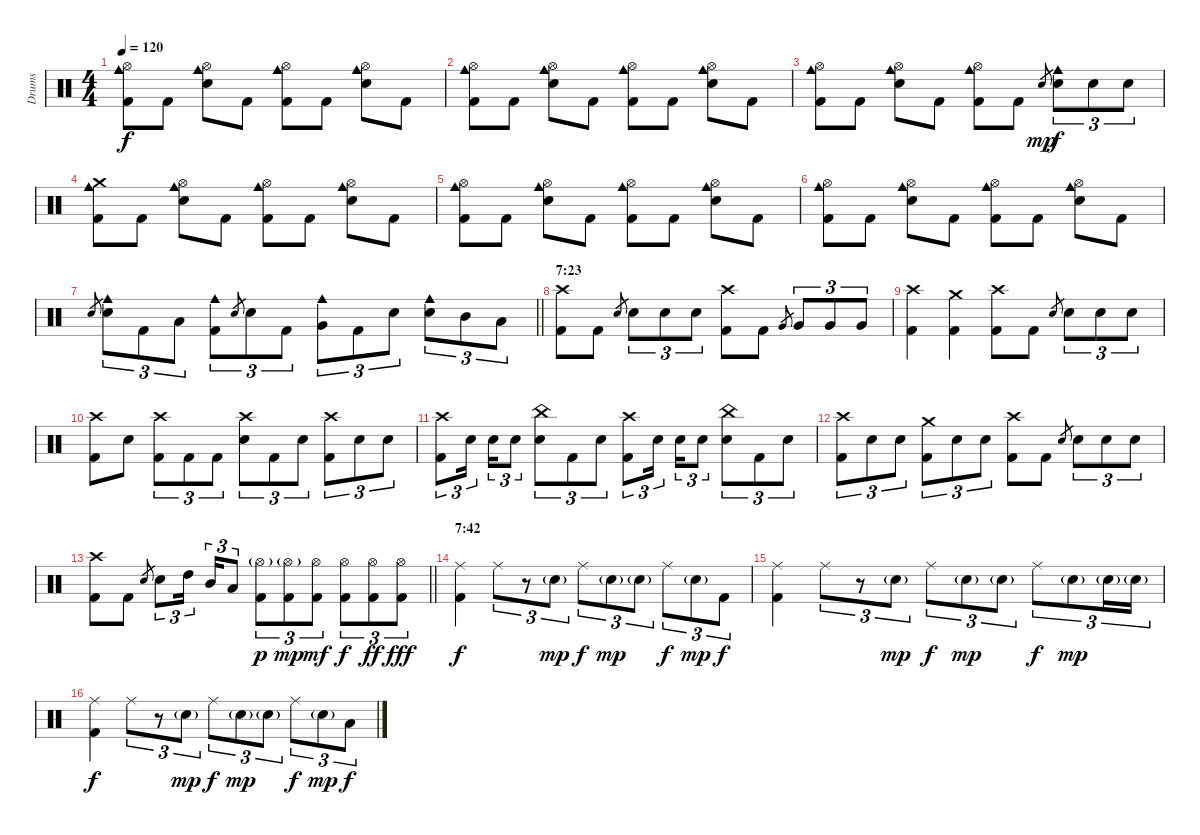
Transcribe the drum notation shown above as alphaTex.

\track ("Drums" "Drums") {instrument percussion}
\staff {score}
\articulation defaults
\ts (4 4)
\tempo 120
\clef neutral
\ks c
("Hi-Hat (open)" "Cowbell medium (hit)" "Kick (hit) 2").8{dy f} "Kick (hit) 2".8 ("Hi-Hat (open)" "Cowbell medium (hit)" "Electric Snare (hit)").8 "Kick (hit) 2".8 ("Hi-Hat (open)" "Cowbell medium (hit)" "Kick (hit) 2").8 "Kick (hit) 2".8 ("Hi-Hat (open)" "Cowbell medium (hit)" "Electric Snare (hit)").8 "Kick (hit) 2".8 |
("Hi-Hat (open)" "Cowbell medium (hit)" "Kick (hit) 2").8 "Kick (hit) 2".8 ("Hi-Hat (open)" "Cowbell medium (hit)" "Electric Snare (hit)").8 "Kick (hit) 2".8 ("Hi-Hat (open)" "Cowbell medium (hit)" "Kick (hit) 2").8 "Kick (hit) 2".8 ("Hi-Hat (open)" "Cowbell medium (hit)" "Electric Snare (hit)").8 "Kick (hit) 2".8 |
("Hi-Hat (open)" "Cowbell medium (hit)" "Kick (hit) 2").8 "Kick (hit) 2".8 ("Hi-Hat (open)" "Cowbell medium (hit)" "Electric Snare (hit)").8 "Kick (hit) 2".8 ("Hi-Hat (open)" "Cowbell medium (hit)" "Kick (hit) 2").8 "Kick (hit) 2".8 "Electric Snare (hit)".8{gr dy mp} ("Cowbell medium (hit)" "Electric Snare (hit)").8{tu (3 2) dy f} "Electric Snare (hit)".8{tu (3 2)} "Electric Snare (hit)".8{tu (3 2)} |
("Crash medium (hit)" "Cowbell medium (hit)" "Kick (hit) 2").8 "Kick (hit) 2".8 ("Hi-Hat (open)" "Cowbell medium (hit)" "Electric Snare (hit)").8 "Kick (hit) 2".8 ("Hi-Hat (open)" "Cowbell medium (hit)" "Kick (hit) 2").8 "Kick (hit) 2".8 ("Hi-Hat (open)" "Cowbell medium (hit)" "Electric Snare (hit)").8 "Kick (hit) 2".8 |
("Hi-Hat (open)" "Cowbell medium (hit)" "Kick (hit) 2").8 "Kick (hit) 2".8 ("Hi-Hat (open)" "Cowbell medium (hit)" "Electric Snare (hit)").8 "Kick (hit) 2".8 ("Hi-Hat (open)" "Cowbell medium (hit)" "Kick (hit) 2").8 "Kick (hit) 2".8 ("Hi-Hat (open)" "Cowbell medium (hit)" "Electric Snare (hit)").8 "Kick (hit) 2".8 |
("Hi-Hat (open)" "Cowbell medium (hit)" "Kick (hit) 2").8 "Kick (hit) 2".8 ("Hi-Hat (open)" "Cowbell medium (hit)" "Electric Snare (hit)").8 "Kick (hit) 2".8 ("Hi-Hat (open)" "Cowbell medium (hit)" "Kick (hit) 2").8 "Kick (hit) 2".8 ("Hi-Hat (open)" "Cowbell medium (hit)" "Electric Snare (hit)").8 "Kick (hit) 2".8 |
\barLineRight lightlight "Electric Snare (hit)".8{gr}
("Cowbell medium (hit)" "Electric Snare (hit)").8{tu (3 2)} "Kick (hit) 2".8{tu (3 2)} "Low Tom (hit)".8{tu (3 2)} ("Cowbell medium (hit)" "Kick (hit) 2").8{tu (3 2)} "Electric Snare (hit)".8{gr} "Electric Snare (hit)".8{tu (3 2)} "Kick (hit) 2".8{tu (3 2)} ("Cowbell medium (hit)" "Very Low Tom (hit)").8{tu (3 2)} "Kick (hit) 2".8{tu (3 2)} "Electric Snare (hit)".8{tu (3 2)} ("Cowbell medium (hit)" "Electric Snare (hit)").8{tu (3 2)} "Mid Tom (hit)".8{tu (3 2)} "Low Tom (hit)".8{tu (3 2)} |
\section ("" "7:23")
("Crash high (hit)" "Kick (hit) 2").8 "Kick (hit) 2".8 "Electric Snare (hit)".8{gr} "Electric Snare (hit)".8{tu (3 2)} "Electric Snare (hit)".8{tu (3 2)} "Electric Snare (hit)".8{tu (3 2)} ("Crash high (hit)" "Kick (hit) 2").8 "Kick (hit) 2".8 "Very Low Tom (hit)".8{gr} "Very Low Tom (hit)".8{tu (3 2)} "Very Low Tom (hit)".8{tu (3 2)} "Very Low Tom (hit)".8{tu (3 2)} |
("Crash high (hit)" "Kick (hit) 2").4 ("Crash medium (hit)" "Kick (hit) 2").4 ("Crash high (hit)" "Kick (hit) 2").8 "Kick (hit) 2".8 "Electric Snare (hit)".8{gr} "Electric Snare (hit)".8{tu (3 2)} "Electric Snare (hit)".8{tu (3 2)} "Electric Snare (hit)".8{tu (3 2)} |
("Crash high (hit)" "Kick (hit) 2").8 "Electric Snare (hit)".8 ("Crash high (hit)" "Kick (hit) 2").8{tu (3 2)} "Kick (hit) 2".8{tu (3 2)} "Kick (hit) 2".8{tu (3 2)} ("Crash high (hit)" "Electric Snare (hit)").8{tu (3 2)} "Kick (hit) 2".8{tu (3 2)} "Electric Snare (hit)".8{tu (3 2)} ("Crash high (hit)" "Kick (hit) 2").8{tu (3 2)} "Electric Snare (hit)".8{tu (3 2)} "Electric Snare (hit)".8{tu (3 2)} |
("Crash high (hit)" "Kick (hit) 2").8{tu (3 2)} "Electric Snare (hit)".16{tu (3 2)} "Electric Snare (hit)".16{tu (3 2)} "Electric Snare (hit)".8{tu (3 2)} ("China (hit)" "Electric Snare (hit)").8{tu (3 2)} "Kick (hit) 2".8{tu (3 2)} "Electric Snare (hit)".8{tu (3 2)} ("Crash high (hit)" "Kick (hit) 2").8{tu (3 2)} "Electric Snare (hit)".16{tu (3 2)} "Electric Snare (hit)".16{tu (3 2)} "Electric Snare (hit)".8{tu (3 2)} ("China (hit)" "Electric Snare (hit)").8{tu (3 2)} "Kick (hit) 2".8{tu (3 2)} "Electric Snare (hit)".8{tu (3 2)} |
("Crash high (hit)" "Kick (hit) 2").8{tu (3 2)} "Electric Snare (hit)".8{tu (3 2)} "Electric Snare (hit)".8{tu (3 2)} ("Crash medium (hit)" "Kick (hit) 2").8{tu (3 2)} "Electric Snare (hit)".8{tu (3 2)} "Electric Snare (hit)".8{tu (3 2)} ("Crash high (hit)" "Kick (hit) 2").8 "Kick (hit) 2".8 "Electric Snare (hit)".8{gr} "Electric Snare (hit)".8{tu (3 2)} "Electric Snare (hit)".8{tu (3 2)} "Electric Snare (hit)".8{tu (3 2)} |
\barLineRight lightlight
("Crash high (hit)" "Kick (hit) 2").8 "Kick (hit) 2".8 "Electric Snare (hit)".8{gr} "Electric Snare (hit)".8{tu (3 2)} "High Tom (hit)".16{tu (3 2)} "Mid Tom (hit)".16{tu (3 2)} "Low Tom (hit)".8{tu (3 2)} ("Hi-Hat (open)"{g} "Kick (hit) 2").8{tu (3 2) dy p} ("Hi-Hat (open)"{g} "Kick (hit) 2").8{tu (3 2) dy mp} ("Hi-Hat (open)" "Kick (hit) 2").8{tu (3 2) dy mf} ("Hi-Hat (open)" "Kick (hit) 2").8{tu (3 2) dy f} ("Hi-Hat (open)" "Kick (hit) 2").8{tu (3 2) dy ff} ("Hi-Hat (open)" "Kick (hit) 2").8{tu (3 2) dy fff} |
\section ("" "7:42")
("Ride (middle)" "Kick (hit) 2").4{dy f} "Ride (middle)".8{tu (3 2)} r.8{tu (3 2)} "Snare (hit) 2"{g}.8{tu (3 2) dy mp} "Ride (middle)".8{tu (3 2) dy f} "Snare (hit) 2"{g}.8{tu (3 2) dy mp} "Snare (hit) 2"{g}.8{tu (3 2)} "Ride (middle)".8{tu (3 2) dy f} "Snare (hit) 2"{g}.8{tu (3 2) dy mp} "Kick (hit) 2".8{tu (3 2) dy f} |
("Ride (middle)" "Kick (hit) 2").4 "Ride (middle)".8{tu (3 2)} r.8{tu (3 2)} "Snare (hit) 2"{g}.8{tu (3 2) dy mp} "Ride (middle)".8{tu (3 2) dy f} "Snare (hit) 2"{g}.8{tu (3 2) dy mp} "Snare (hit) 2"{g}.8{tu (3 2)} "Ride (middle)".8{tu (3 2) dy f} "Snare (hit) 2"{g}.8{tu (3 2) dy mp} "Snare (hit) 2"{g}.16{tu (3 2)} "Snare (hit) 2"{g}.16{tu (3 2)} |
("Ride (middle)" "Kick (hit) 2").4{dy f} "Ride (middle)".8{tu (3 2)} r.8{tu (3 2)} "Snare (hit) 2"{g}.8{tu (3 2) dy mp} "Ride (middle)".8{tu (3 2) dy f} "Snare (hit) 2"{g}.8{tu (3 2) dy mp} "Snare (hit) 2"{g}.8{tu (3 2)} "Ride (middle)".8{tu (3 2) dy f} "Snare (hit) 2"{g}.8{tu (3 2) dy mp} "Low Tom (hit)".8{tu (3 2) dy f}
